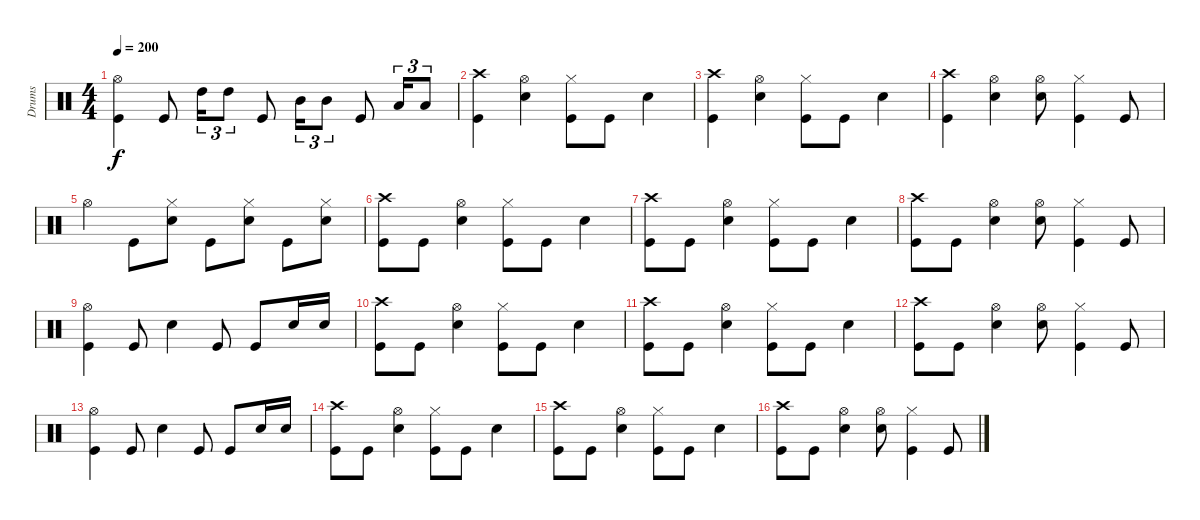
\track ("Drums" "Drums") {instrument percussion}
\staff {score}
\articulation defaults
\ts (4 4)
\tempo 200
\clef neutral
\ks c
("Hi-Hat (open)" "Kick (hit)").4{dy f} "Kick (hit)".8 "High Tom (hit)".16{tu (3 2)} "High Tom (hit)".8{tu (3 2)} "Kick (hit)".8 "Mid Tom (hit)".16{tu (3 2)} "Mid Tom (hit)".8{tu (3 2)} "Kick (hit)".8 "Low Tom (hit)".16{tu (3 2)} "Low Tom (hit)".8{tu (3 2)} |
("Crash high (hit)" "Kick (hit)").4 ("Hi-Hat (open)" "Snare (hit) 2").4 ("Hi-Hat (closed)" "Kick (hit)").8 "Kick (hit)".8 "Snare (hit) 2".4 |
("Crash high (hit)" "Kick (hit)").4 ("Hi-Hat (open)" "Snare (hit) 2").4 ("Hi-Hat (closed)" "Kick (hit)").8 "Kick (hit)".8 "Snare (hit) 2".4 |
("Crash high (hit)" "Kick (hit)").4 ("Hi-Hat (open)" "Snare (hit) 2").4 ("Hi-Hat (open)" "Snare (hit) 2").8 ("Hi-Hat (closed)" "Kick (hit)").4 "Kick (hit)".8 |
"Hi-Hat (open)".4 "Kick (hit)".8 ("Hi-Hat (closed)" "Snare (hit) 2").8 "Kick (hit)".8 ("Hi-Hat (closed)" "Snare (hit) 2").8 "Kick (hit)".8 ("Hi-Hat (closed)" "Snare (hit) 2").8 |
("Crash high (hit)" "Kick (hit)").8 "Kick (hit)".8 ("Hi-Hat (open)" "Snare (hit) 2").4 ("Hi-Hat (closed)" "Kick (hit)").8 "Kick (hit)".8 "Snare (hit) 2".4 |
("Crash high (hit)" "Kick (hit)").8 "Kick (hit)".8 ("Hi-Hat (open)" "Snare (hit) 2").4 ("Hi-Hat (closed)" "Kick (hit)").8 "Kick (hit)".8 "Snare (hit) 2".4 |
("Crash high (hit)" "Kick (hit)").8 "Kick (hit)".8 ("Hi-Hat (open)" "Snare (hit) 2").4 ("Hi-Hat (open)" "Snare (hit) 2").8 ("Hi-Hat (closed)" "Kick (hit)").4 "Kick (hit)".8 |
("Hi-Hat (open)" "Kick (hit)").4 "Kick (hit)".8 "Snare (hit) 2".4 "Kick (hit)".8 "Kick (hit)".8 "Snare (hit) 2".16 "Snare (hit) 2".16 |
("Crash high (hit)" "Kick (hit)").8 "Kick (hit)".8 ("Hi-Hat (open)" "Snare (hit) 2").4 ("Hi-Hat (closed)" "Kick (hit)").8 "Kick (hit)".8 "Snare (hit) 2".4 |
("Crash high (hit)" "Kick (hit)").8 "Kick (hit)".8 ("Hi-Hat (open)" "Snare (hit) 2").4 ("Hi-Hat (closed)" "Kick (hit)").8 "Kick (hit)".8 "Snare (hit) 2".4 |
("Crash high (hit)" "Kick (hit)").8 "Kick (hit)".8 ("Hi-Hat (open)" "Snare (hit) 2").4 ("Hi-Hat (open)" "Snare (hit) 2").8 ("Hi-Hat (closed)" "Kick (hit)").4 "Kick (hit)".8 |
("Hi-Hat (open)" "Kick (hit)").4 "Kick (hit)".8 "Snare (hit) 2".4 "Kick (hit)".8 "Kick (hit)".8 "Snare (hit) 2".16 "Snare (hit) 2".16 |
("Crash high (hit)" "Kick (hit)").8 "Kick (hit)".8 ("Hi-Hat (open)" "Snare (hit) 2").4 ("Hi-Hat (closed)" "Kick (hit)").8 "Kick (hit)".8 "Snare (hit) 2".4 |
("Crash high (hit)" "Kick (hit)").8 "Kick (hit)".8 ("Hi-Hat (open)" "Snare (hit) 2").4 ("Hi-Hat (closed)" "Kick (hit)").8 "Kick (hit)".8 "Snare (hit) 2".4 |
("Crash high (hit)" "Kick (hit)").8 "Kick (hit)".8 ("Hi-Hat (open)" "Snare (hit) 2").4 ("Hi-Hat (open)" "Snare (hit) 2").8 ("Hi-Hat (closed)" "Kick (hit)").4 "Kick (hit)".8
